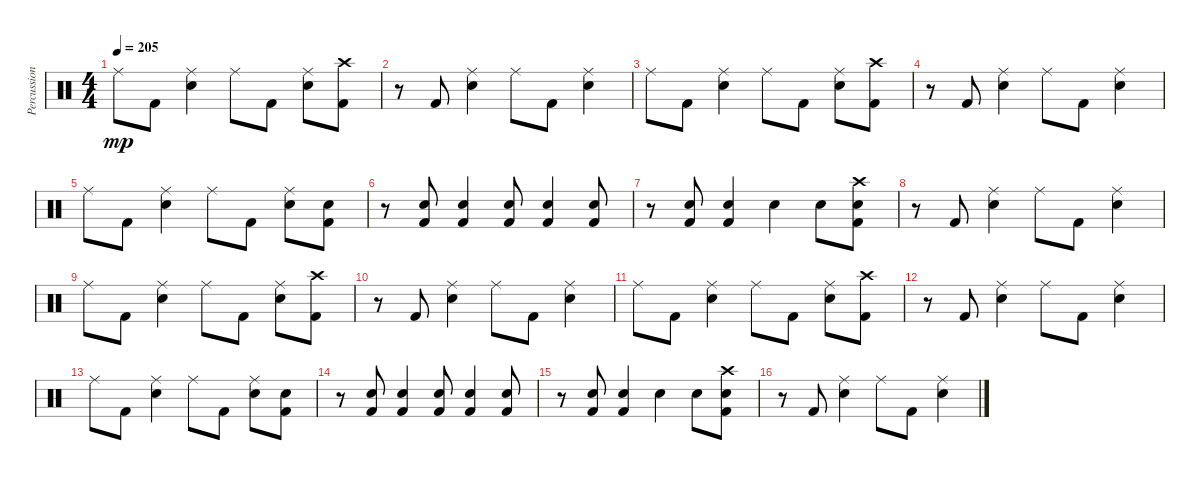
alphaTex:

\track ("Percussion" "Percussion") {instrument percussion}
\staff {score}
\articulation defaults
\ts (4 4)
\tempo 205
\clef neutral
\ks c "Ride (middle)".8{dy mp} "Kick (hit) 2".8
("Ride (middle)" "Snare (hit) 2").4 "Ride (middle)".8 "Kick (hit) 2".8 ("Ride (middle)" "Snare (hit) 2").8 ("Crash high (hit)" "Kick (hit) 2").8 |
r.8 "Kick (hit) 2".8 ("Ride (middle)" "Snare (hit) 2").4 "Ride (middle)".8 "Kick (hit) 2".8 ("Ride (middle)" "Snare (hit) 2").4 |
"Ride (middle)".8 "Kick (hit) 2".8 ("Ride (middle)" "Snare (hit) 2").4 "Ride (middle)".8 "Kick (hit) 2".8 ("Ride (middle)" "Snare (hit) 2").8 ("Crash high (hit)" "Kick (hit) 2").8 |
r.8 "Kick (hit) 2".8 ("Ride (middle)" "Snare (hit) 2").4 "Ride (middle)".8 "Kick (hit) 2".8 ("Ride (middle)" "Snare (hit) 2").4 |
"Ride (middle)".8 "Kick (hit) 2".8 ("Ride (middle)" "Snare (hit) 2").4 "Ride (middle)".8 "Kick (hit) 2".8 ("Ride (middle)" "Snare (hit) 2").8 ("Snare (hit) 2" "Kick (hit) 2").8 |
r.8 ("Snare (hit) 2" "Kick (hit) 2").8 ("Snare (hit) 2" "Kick (hit) 2").4 ("Snare (hit) 2" "Kick (hit) 2").8 ("Snare (hit) 2" "Kick (hit) 2").4 ("Snare (hit) 2" "Kick (hit) 2").8 |
r.8 ("Snare (hit) 2" "Kick (hit) 2").8 ("Snare (hit) 2" "Kick (hit) 2").4 "Snare (hit) 2".4 "Snare (hit) 2".8 ("Crash high (hit)" "Snare (hit) 2" "Kick (hit) 2").8 |
r.8 "Kick (hit) 2".8 ("Ride (middle)" "Snare (hit) 2").4 "Ride (middle)".8 "Kick (hit) 2".8 ("Ride (middle)" "Snare (hit) 2").4 |
"Ride (middle)".8 "Kick (hit) 2".8 ("Ride (middle)" "Snare (hit) 2").4 "Ride (middle)".8 "Kick (hit) 2".8 ("Ride (middle)" "Snare (hit) 2").8 ("Crash high (hit)" "Kick (hit) 2").8 |
r.8 "Kick (hit) 2".8 ("Ride (middle)" "Snare (hit) 2").4 "Ride (middle)".8 "Kick (hit) 2".8 ("Ride (middle)" "Snare (hit) 2").4 |
"Ride (middle)".8 "Kick (hit) 2".8 ("Ride (middle)" "Snare (hit) 2").4 "Ride (middle)".8 "Kick (hit) 2".8 ("Ride (middle)" "Snare (hit) 2").8 ("Crash high (hit)" "Kick (hit) 2").8 |
r.8 "Kick (hit) 2".8 ("Ride (middle)" "Snare (hit) 2").4 "Ride (middle)".8 "Kick (hit) 2".8 ("Ride (middle)" "Snare (hit) 2").4 |
"Ride (middle)".8 "Kick (hit) 2".8 ("Ride (middle)" "Snare (hit) 2").4 "Ride (middle)".8 "Kick (hit) 2".8 ("Ride (middle)" "Snare (hit) 2").8 ("Snare (hit) 2" "Kick (hit) 2").8 |
r.8 ("Snare (hit) 2" "Kick (hit) 2").8 ("Snare (hit) 2" "Kick (hit) 2").4 ("Snare (hit) 2" "Kick (hit) 2").8 ("Snare (hit) 2" "Kick (hit) 2").4 ("Snare (hit) 2" "Kick (hit) 2").8 |
r.8 ("Snare (hit) 2" "Kick (hit) 2").8 ("Snare (hit) 2" "Kick (hit) 2").4 "Snare (hit) 2".4 "Snare (hit) 2".8 ("Crash high (hit)" "Snare (hit) 2" "Kick (hit) 2").8 |
r.8 "Kick (hit) 2".8 ("Ride (middle)" "Snare (hit) 2").4 "Ride (middle)".8 "Kick (hit) 2".8 ("Ride (middle)" "Snare (hit) 2").4
